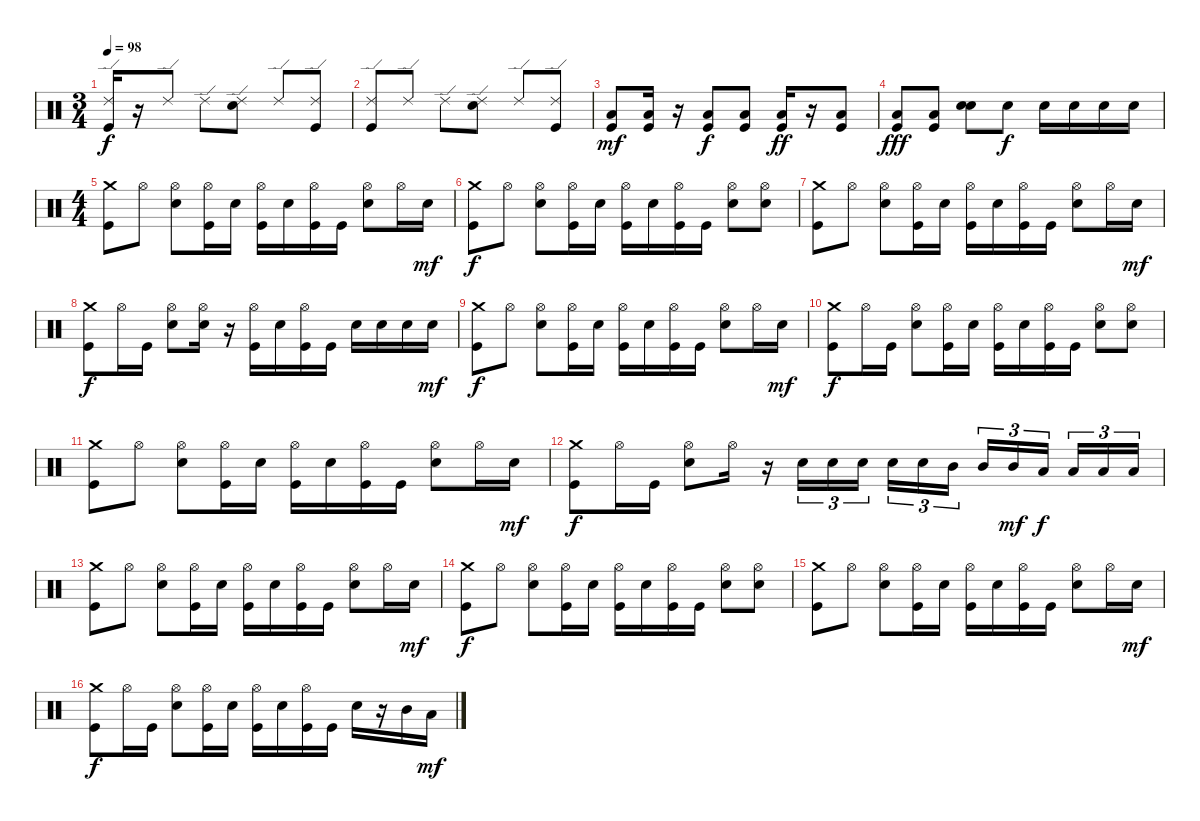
\track "" {instrument percussion}
\staff {score}
\articulation defaults
\ts (3 4)
\tempo 98
\clef neutral
\ks c
("Ride (edge) 2" "Kick (hit)").16{dy f} r.16 "Ride (edge) 2".8 "Ride (edge) 2".8 ("Ride (edge) 2" "Electric Snare (hit)").8 "Ride (edge) 2".8 ("Ride (edge) 2" "Kick (hit)").8 |
("Ride (edge) 2" "Kick (hit)").8 "Ride (edge) 2".8 "Ride (edge) 2".8 ("Ride (edge) 2" "Electric Snare (hit)").8 "Ride (edge) 2".8 ("Ride (edge) 2" "Kick (hit)").8 |
("Low Floor Tom (hit)" "Kick (hit)").8{dy mf} ("Low Floor Tom (hit)" "Kick (hit)").16 r.16 ("Low Floor Tom (hit)" "Kick (hit)").8{dy f} ("Low Floor Tom (hit)" "Kick (hit)").8 ("Low Floor Tom (hit)" "Kick (hit)").16{dy ff} r.16 ("Low Floor Tom (hit)" "Kick (hit)").8 |
("Low Floor Tom (hit)" "Kick (hit)").8{dy fff} ("Kick (hit)" "Low Floor Tom (hit)").8 ("Electric Snare (hit)" "Electric Snare (hit)").8 "Electric Snare (hit)".8{dy f} "Electric Snare (hit)".16 "Electric Snare (hit)".16 "Electric Snare (hit)".16 "Electric Snare (hit)".16 |
\ts (4 4)
("Crash medium (hit)" "Kick (hit)").8 "Hi-Hat (open)".8 ("Hi-Hat (open)" "Electric Snare (hit)").8 ("Hi-Hat (open)" "Kick (hit)").16 "Electric Snare (hit)".16 ("Hi-Hat (open)" "Kick (hit)").16 "Electric Snare (hit)".16 ("Hi-Hat (open)" "Kick (hit)").16 "Kick (hit)".16 ("Hi-Hat (open)" "Electric Snare (hit)").8 "Hi-Hat (open)".16 "Electric Snare (hit)".16{dy mf} |
("Crash medium (hit)" "Kick (hit)").8{dy f} "Hi-Hat (open)".8 ("Hi-Hat (open)" "Electric Snare (hit)").8 ("Hi-Hat (open)" "Kick (hit)").16 "Electric Snare (hit)".16 ("Hi-Hat (open)" "Kick (hit)").16 "Electric Snare (hit)".16 ("Hi-Hat (open)" "Kick (hit)").16 "Kick (hit)".16 ("Hi-Hat (open)" "Electric Snare (hit)").8 ("Hi-Hat (open)" "Electric Snare (hit)").8 |
("Crash medium (hit)" "Kick (hit)").8 "Hi-Hat (open)".8 ("Hi-Hat (open)" "Electric Snare (hit)").8 ("Hi-Hat (open)" "Kick (hit)").16 "Electric Snare (hit)".16 ("Hi-Hat (open)" "Kick (hit)").16 "Electric Snare (hit)".16 ("Hi-Hat (open)" "Kick (hit)").16 "Kick (hit)".16 ("Hi-Hat (open)" "Electric Snare (hit)").8 "Hi-Hat (open)".16 "Electric Snare (hit)".16{dy mf} |
("Crash medium (hit)" "Kick (hit)").8{dy f} "Hi-Hat (open)".16 "Kick (hit)".16 ("Hi-Hat (open)" "Electric Snare (hit)").8 ("Hi-Hat (open)" "Electric Snare (hit)").16 r.16 ("Hi-Hat (open)" "Kick (hit)").16 "Electric Snare (hit)".16 ("Hi-Hat (open)" "Kick (hit)").16 "Kick (hit)".16 "Electric Snare (hit)".16 "Electric Snare (hit)".16 "Electric Snare (hit)".16 "Electric Snare (hit)".16{dy mf} |
("Crash medium (hit)" "Kick (hit)").8{dy f} "Hi-Hat (open)".8 ("Hi-Hat (open)" "Electric Snare (hit)").8 ("Hi-Hat (open)" "Kick (hit)").16 "Electric Snare (hit)".16 ("Hi-Hat (open)" "Kick (hit)").16 "Electric Snare (hit)".16 ("Hi-Hat (open)" "Kick (hit)").16 "Kick (hit)".16 ("Hi-Hat (open)" "Electric Snare (hit)").8 "Hi-Hat (open)".16 "Electric Snare (hit)".16{dy mf} |
("Crash medium (hit)" "Kick (hit)").8{dy f} "Hi-Hat (open)".16 "Kick (hit)".16 ("Hi-Hat (open)" "Electric Snare (hit)").8 ("Hi-Hat (open)" "Kick (hit)").16 "Electric Snare (hit)".16 ("Hi-Hat (open)" "Kick (hit)").16 "Electric Snare (hit)".16 ("Hi-Hat (open)" "Kick (hit)").16 "Kick (hit)".16 ("Hi-Hat (open)" "Electric Snare (hit)").8 ("Hi-Hat (open)" "Electric Snare (hit)").8 |
("Crash medium (hit)" "Kick (hit)").8 "Hi-Hat (open)".8 ("Hi-Hat (open)" "Electric Snare (hit)").8 ("Hi-Hat (open)" "Kick (hit)").16 "Electric Snare (hit)".16 ("Hi-Hat (open)" "Kick (hit)").16 "Electric Snare (hit)".16 ("Hi-Hat (open)" "Kick (hit)").16 "Kick (hit)".16 ("Hi-Hat (open)" "Electric Snare (hit)").8 "Hi-Hat (open)".16 "Electric Snare (hit)".16{dy mf} |
("Crash medium (hit)" "Kick (hit)").8{dy f} "Hi-Hat (open)".16 "Kick (hit)".16 ("Hi-Hat (open)" "Electric Snare (hit)").8 "Hi-Hat (open)".16 r.16 "Electric Snare (hit)".16{tu (3 2)} "Electric Snare (hit)".16{tu (3 2)} "Electric Snare (hit)".16{tu (3 2)} "Electric Snare (hit)".16{tu (3 2)} "Electric Snare (hit)".16{tu (3 2)} "Mid Tom (hit)".16{tu (3 2)} "Mid Tom (hit)".16{tu (3 2)} "Mid Tom (hit)".16{tu (3 2) dy mf} "Low Tom (hit)".16{tu (3 2) dy f} "Low Tom (hit)".16{tu (3 2)} "Low Floor Tom (hit)".16{tu (3 2)} "Low Floor Tom (hit)".16{tu (3 2)} |
("Crash medium (hit)" "Kick (hit)").8 "Hi-Hat (open)".8 ("Hi-Hat (open)" "Electric Snare (hit)").8 ("Hi-Hat (open)" "Kick (hit)").16 "Electric Snare (hit)".16 ("Hi-Hat (open)" "Kick (hit)").16 "Electric Snare (hit)".16 ("Hi-Hat (open)" "Kick (hit)").16 "Kick (hit)".16 ("Hi-Hat (open)" "Electric Snare (hit)").8 "Hi-Hat (open)".16 "Electric Snare (hit)".16{dy mf} |
("Crash medium (hit)" "Kick (hit)").8{dy f} "Hi-Hat (open)".8 ("Hi-Hat (open)" "Electric Snare (hit)").8 ("Hi-Hat (open)" "Kick (hit)").16 "Electric Snare (hit)".16 ("Hi-Hat (open)" "Kick (hit)").16 "Electric Snare (hit)".16 ("Hi-Hat (open)" "Kick (hit)").16 "Kick (hit)".16 ("Hi-Hat (open)" "Electric Snare (hit)").8 ("Hi-Hat (open)" "Electric Snare (hit)").8 |
("Crash medium (hit)" "Kick (hit)").8 "Hi-Hat (open)".8 ("Hi-Hat (open)" "Electric Snare (hit)").8 ("Hi-Hat (open)" "Kick (hit)").16 "Electric Snare (hit)".16 ("Hi-Hat (open)" "Kick (hit)").16 "Electric Snare (hit)".16 ("Hi-Hat (open)" "Kick (hit)").16 "Kick (hit)".16 ("Hi-Hat (open)" "Electric Snare (hit)").8 "Hi-Hat (open)".16 "Electric Snare (hit)".16{dy mf} |
("Crash medium (hit)" "Kick (hit)").8{dy f} "Hi-Hat (open)".16 "Kick (hit)".16 ("Hi-Hat (open)" "Electric Snare (hit)").8 ("Hi-Hat (open)" "Kick (hit)").16 "Electric Snare (hit)".16 ("Hi-Hat (open)" "Kick (hit)").16 "Electric Snare (hit)".16 ("Hi-Hat (open)" "Kick (hit)").16 "Kick (hit)".16 "Electric Snare (hit)".16 r.16 "Mid Tom (hit)".16 "Low Tom (hit)".16{dy mf}
